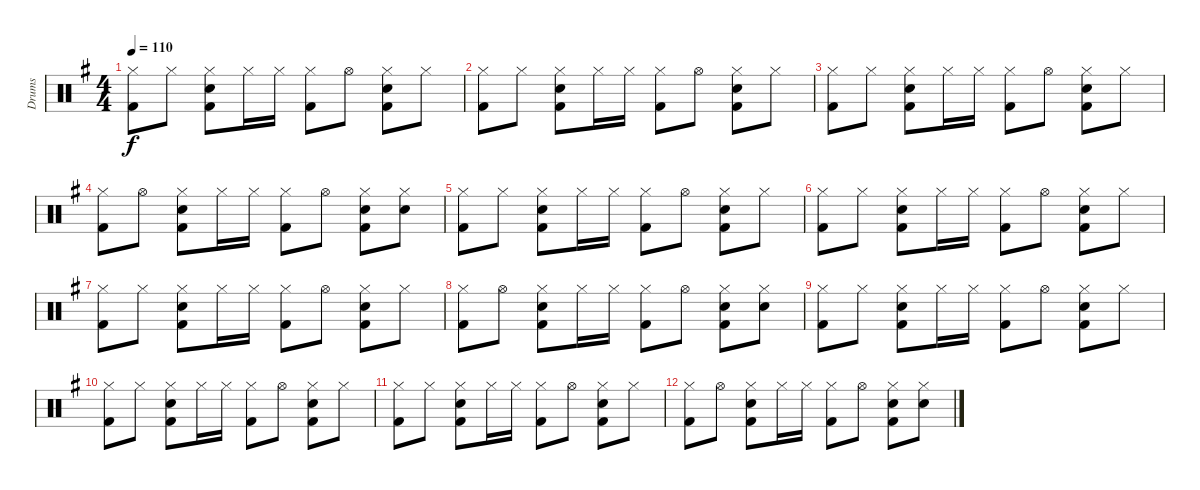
\track ("Drums" "Drums") {instrument percussion}
\staff {score}
\articulation defaults
\ts (4 4)
\tempo 110
\clef neutral
\ks eminor
("Hi-Hat (closed)" "Kick (hit) 2").8{dy f} "Hi-Hat (closed)".8 ("Hi-Hat (closed)" "Snare (hit) 2" "Kick (hit) 2").8 "Hi-Hat (closed)".16 "Hi-Hat (closed)".16 ("Hi-Hat (closed)" "Kick (hit) 2").8 "Hi-Hat (open)".8 ("Hi-Hat (closed)" "Snare (hit) 2" "Kick (hit) 2").8 "Hi-Hat (closed)".8 |
("Hi-Hat (closed)" "Kick (hit) 2").8 "Hi-Hat (closed)".8 ("Hi-Hat (closed)" "Snare (hit) 2" "Kick (hit) 2").8 "Hi-Hat (closed)".16 "Hi-Hat (closed)".16 ("Hi-Hat (closed)" "Kick (hit) 2").8 "Hi-Hat (open)".8 ("Hi-Hat (closed)" "Snare (hit) 2" "Kick (hit) 2").8 "Hi-Hat (closed)".8 |
("Hi-Hat (closed)" "Kick (hit) 2").8 "Hi-Hat (closed)".8 ("Hi-Hat (closed)" "Snare (hit) 2" "Kick (hit) 2").8 "Hi-Hat (closed)".16 "Hi-Hat (closed)".16 ("Hi-Hat (closed)" "Kick (hit) 2").8 "Hi-Hat (open)".8 ("Hi-Hat (closed)" "Snare (hit) 2" "Kick (hit) 2").8 "Hi-Hat (closed)".8 |
("Hi-Hat (closed)" "Kick (hit) 2").8 "Hi-Hat (open)".8 ("Hi-Hat (closed)" "Snare (hit) 2" "Kick (hit) 2").8 "Hi-Hat (closed)".16 "Hi-Hat (closed)".16 ("Hi-Hat (closed)" "Kick (hit) 2").8 "Hi-Hat (open)".8 ("Hi-Hat (closed)" "Snare (hit) 2" "Kick (hit) 2").8 ("Hi-Hat (closed)" "Snare (hit) 2").8 |
("Hi-Hat (closed)" "Kick (hit) 2").8 "Hi-Hat (closed)".8 ("Hi-Hat (closed)" "Snare (hit) 2" "Kick (hit) 2").8 "Hi-Hat (closed)".16 "Hi-Hat (closed)".16 ("Hi-Hat (closed)" "Kick (hit) 2").8 "Hi-Hat (open)".8 ("Hi-Hat (closed)" "Snare (hit) 2" "Kick (hit) 2").8 "Hi-Hat (closed)".8 |
("Hi-Hat (closed)" "Kick (hit) 2").8 "Hi-Hat (closed)".8 ("Hi-Hat (closed)" "Snare (hit) 2" "Kick (hit) 2").8 "Hi-Hat (closed)".16 "Hi-Hat (closed)".16 ("Hi-Hat (closed)" "Kick (hit) 2").8 "Hi-Hat (open)".8 ("Hi-Hat (closed)" "Snare (hit) 2" "Kick (hit) 2").8 "Hi-Hat (closed)".8 |
("Hi-Hat (closed)" "Kick (hit) 2").8 "Hi-Hat (closed)".8 ("Hi-Hat (closed)" "Snare (hit) 2" "Kick (hit) 2").8 "Hi-Hat (closed)".16 "Hi-Hat (closed)".16 ("Hi-Hat (closed)" "Kick (hit) 2").8 "Hi-Hat (open)".8 ("Hi-Hat (closed)" "Snare (hit) 2" "Kick (hit) 2").8 "Hi-Hat (closed)".8 |
("Hi-Hat (closed)" "Kick (hit) 2").8 "Hi-Hat (open)".8 ("Hi-Hat (closed)" "Snare (hit) 2" "Kick (hit) 2").8 "Hi-Hat (closed)".16 "Hi-Hat (closed)".16 ("Hi-Hat (closed)" "Kick (hit) 2").8 "Hi-Hat (open)".8 ("Hi-Hat (closed)" "Snare (hit) 2" "Kick (hit) 2").8 ("Hi-Hat (closed)" "Snare (hit) 2").8 |
("Hi-Hat (closed)" "Kick (hit) 2").8 "Hi-Hat (closed)".8 ("Hi-Hat (closed)" "Snare (hit) 2" "Kick (hit) 2").8 "Hi-Hat (closed)".16 "Hi-Hat (closed)".16 ("Hi-Hat (closed)" "Kick (hit) 2").8 "Hi-Hat (open)".8 ("Hi-Hat (closed)" "Snare (hit) 2" "Kick (hit) 2").8 "Hi-Hat (closed)".8 |
("Hi-Hat (closed)" "Kick (hit) 2").8 "Hi-Hat (closed)".8 ("Hi-Hat (closed)" "Snare (hit) 2" "Kick (hit) 2").8 "Hi-Hat (closed)".16 "Hi-Hat (closed)".16 ("Hi-Hat (closed)" "Kick (hit) 2").8 "Hi-Hat (open)".8 ("Hi-Hat (closed)" "Snare (hit) 2" "Kick (hit) 2").8 "Hi-Hat (closed)".8 |
("Hi-Hat (closed)" "Kick (hit) 2").8 "Hi-Hat (closed)".8 ("Hi-Hat (closed)" "Snare (hit) 2" "Kick (hit) 2").8 "Hi-Hat (closed)".16 "Hi-Hat (closed)".16 ("Hi-Hat (closed)" "Kick (hit) 2").8 "Hi-Hat (open)".8 ("Hi-Hat (closed)" "Snare (hit) 2" "Kick (hit) 2").8 "Hi-Hat (closed)".8 |
("Hi-Hat (closed)" "Kick (hit) 2").8 "Hi-Hat (open)".8 ("Hi-Hat (closed)" "Snare (hit) 2" "Kick (hit) 2").8 "Hi-Hat (closed)".16 "Hi-Hat (closed)".16 ("Hi-Hat (closed)" "Kick (hit) 2").8 "Hi-Hat (open)".8 ("Hi-Hat (closed)" "Snare (hit) 2" "Kick (hit) 2").8 ("Hi-Hat (closed)" "Snare (hit) 2").8
